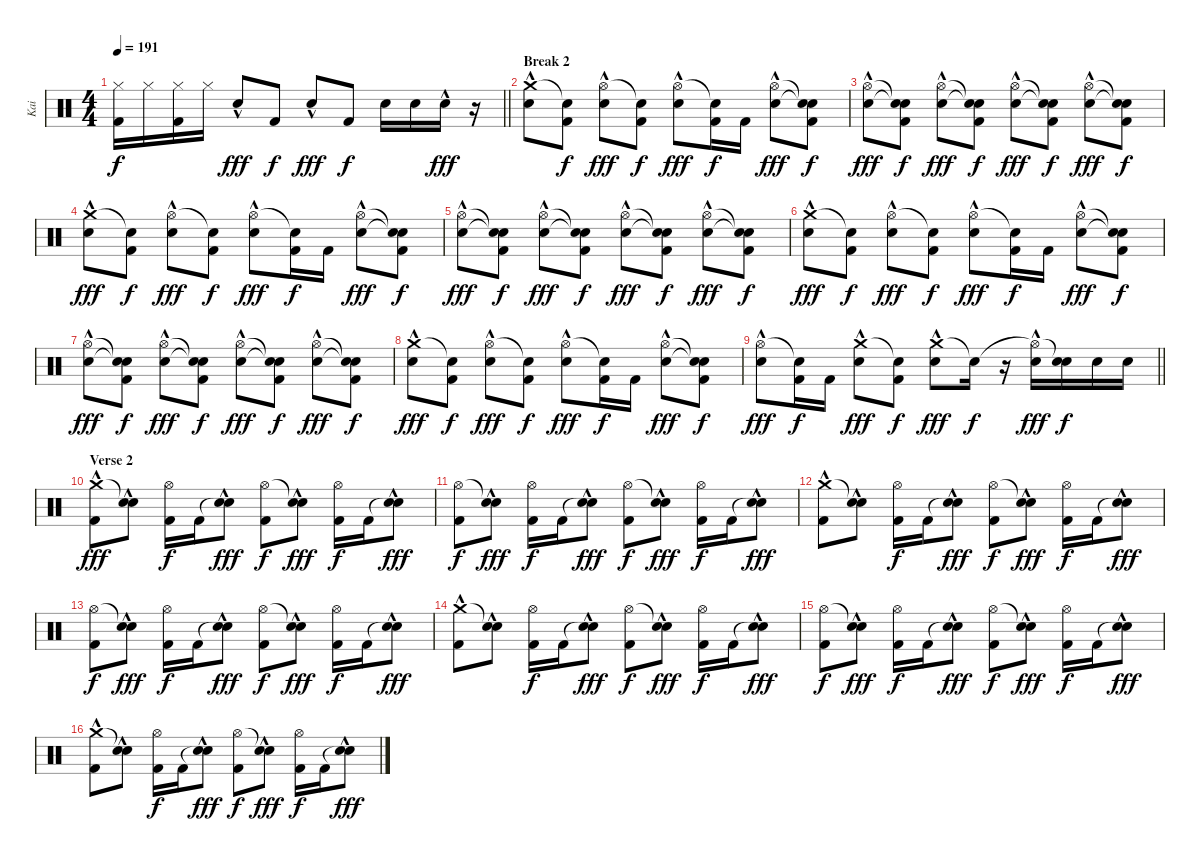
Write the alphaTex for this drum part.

\track ("Kai" "Kai") {instrument percussion}
\staff {score}
\articulation defaults
\ts (4 4)
\tempo 191
\clef neutral
\barLineRight lightlight
\ks c
("Hi-Hat (closed)" "Kick (hit) 2").16{dy f} "Hi-Hat (closed)".16 ("Hi-Hat (closed)" "Kick (hit) 2").16 "Hi-Hat (closed)".16 "Snare (hit) 2"{hac}.8{dy fff} "Kick (hit) 2".8{dy f} "Snare (hit) 2"{hac}.8{dy fff} "Kick (hit) 2".8{dy f} "Snare (hit) 2".16 "Snare (hit) 2".16 "Snare (hit) 2"{hac}.16{dy fff} r.16 |
\section ("" "Break 2")
("Crash medium (hit)"{hac} "Snare (hit) 2"{hac}).8 ("Snare (hit)"{t} "Kick (hit) 2").8{dy f} ("Hi-Hat (open)" "Snare (hit) 2"{hac}).8{dy fff} ("Snare (hit)"{t} "Kick (hit) 2").8{dy f} ("Hi-Hat (open)" "Snare (hit) 2"{hac}).8{dy fff} ("Snare (hit)"{t} "Kick (hit) 2").16{dy f} "Kick (hit) 2".16 ("Hi-Hat (open)" "Snare (hit) 2"{hac}).8{dy fff} ("Snare (hit)"{t} "Snare (hit)"{t} "Kick (hit) 2").8{dy f} |
("Hi-Hat (open)" "Snare (hit) 2"{hac}).8{dy fff} ("Snare (hit)"{t} "Snare (hit)"{t} "Kick (hit) 2").8{dy f} ("Hi-Hat (open)" "Snare (hit) 2"{hac}).8{dy fff} ("Snare (hit)"{t} "Snare (hit)"{t} "Kick (hit) 2").8{dy f} ("Hi-Hat (open)" "Snare (hit) 2"{hac}).8{dy fff} ("Snare (hit)"{t} "Snare (hit)"{t} "Kick (hit) 2").8{dy f} ("Hi-Hat (open)" "Snare (hit) 2"{hac}).8{dy fff} ("Snare (hit)"{t} "Snare (hit)"{t} "Kick (hit) 2").8{dy f} |
("Crash medium (hit)"{hac} "Snare (hit) 2"{hac}).8{dy fff} ("Snare (hit)"{t} "Kick (hit) 2").8{dy f} ("Hi-Hat (open)" "Snare (hit) 2"{hac}).8{dy fff} ("Snare (hit)"{t} "Kick (hit) 2").8{dy f} ("Hi-Hat (open)" "Snare (hit) 2"{hac}).8{dy fff} ("Snare (hit)"{t} "Kick (hit) 2").16{dy f} "Kick (hit) 2".16 ("Hi-Hat (open)" "Snare (hit) 2"{hac}).8{dy fff} ("Snare (hit)"{t} "Snare (hit)"{t} "Kick (hit) 2").8{dy f} |
("Hi-Hat (open)" "Snare (hit) 2"{hac}).8{dy fff} ("Snare (hit)"{t} "Snare (hit)"{t} "Kick (hit) 2").8{dy f} ("Hi-Hat (open)" "Snare (hit) 2"{hac}).8{dy fff} ("Snare (hit)"{t} "Snare (hit)"{t} "Kick (hit) 2").8{dy f} ("Hi-Hat (open)" "Snare (hit) 2"{hac}).8{dy fff} ("Snare (hit)"{t} "Snare (hit)"{t} "Kick (hit) 2").8{dy f} ("Hi-Hat (open)" "Snare (hit) 2"{hac}).8{dy fff} ("Snare (hit)"{t} "Snare (hit)"{t} "Kick (hit) 2").8{dy f} |
("Crash medium (hit)"{hac} "Snare (hit) 2"{hac}).8{dy fff} ("Snare (hit)"{t} "Kick (hit) 2").8{dy f} ("Hi-Hat (open)" "Snare (hit) 2"{hac}).8{dy fff} ("Snare (hit)"{t} "Kick (hit) 2").8{dy f} ("Hi-Hat (open)" "Snare (hit) 2"{hac}).8{dy fff} ("Snare (hit)"{t} "Kick (hit) 2").16{dy f} "Kick (hit) 2".16 ("Hi-Hat (open)" "Snare (hit) 2"{hac}).8{dy fff} ("Snare (hit)"{t} "Snare (hit)"{t} "Kick (hit) 2").8{dy f} |
("Hi-Hat (open)" "Snare (hit) 2"{hac}).8{dy fff} ("Snare (hit)"{t} "Snare (hit)"{t} "Kick (hit) 2").8{dy f} ("Hi-Hat (open)" "Snare (hit) 2"{hac}).8{dy fff} ("Snare (hit)"{t} "Snare (hit)"{t} "Kick (hit) 2").8{dy f} ("Hi-Hat (open)" "Snare (hit) 2"{hac}).8{dy fff} ("Snare (hit)"{t} "Snare (hit)"{t} "Kick (hit) 2").8{dy f} ("Hi-Hat (open)" "Snare (hit) 2"{hac}).8{dy fff} ("Snare (hit)"{t} "Snare (hit)"{t} "Kick (hit) 2").8{dy f} |
("Crash medium (hit)"{hac} "Snare (hit) 2"{hac}).8{dy fff} ("Snare (hit)"{t} "Kick (hit) 2").8{dy f} ("Hi-Hat (open)" "Snare (hit) 2"{hac}).8{dy fff} ("Snare (hit)"{t} "Kick (hit) 2").8{dy f} ("Hi-Hat (open)" "Snare (hit) 2"{hac}).8{dy fff} ("Snare (hit)"{t} "Kick (hit) 2").16{dy f} "Kick (hit) 2".16 ("Hi-Hat (open)" "Snare (hit) 2"{hac}).8{dy fff} ("Snare (hit)"{t} "Snare (hit)"{t} "Kick (hit) 2").8{dy f} |
\barLineRight lightlight
("Hi-Hat (open)" "Snare (hit) 2"{hac}).8{dy fff} ("Snare (hit)"{t} "Kick (hit) 2").16{dy f} "Kick (hit) 2".16 ("Crash medium (hit)" "Snare (hit) 2"{hac}).8{dy fff} ("Snare (hit)"{t} "Kick (hit) 2").8{dy f} ("Crash medium (hit)" "Snare (hit) 2"{hac}).8{dy fff} "Snare (hit)"{t}.16{dy f} r.16 ("Hi-Hat (open)"{t} "Snare (hit) 2"{hac}).16{dy fff} ("Snare (hit)"{t} "Snare (hit) 2").16{dy f} "Snare (hit) 2".16 "Snare (hit) 2".16 |
\section ("" "Verse 2")
("Crash medium (hit)"{hac} "Kick (hit) 2").8{dy fff} ("Snare (hit)"{t} "Snare (hit) 2"{hac}).8 ("Hi-Hat (open)" "Kick (hit) 2").16{dy f} "Kick (hit) 2".16 ("Snare (hit)"{t} "Snare (hit) 2"{hac}).8{dy fff} ("Hi-Hat (open)" "Kick (hit) 2").8{dy f} ("Snare (hit)"{t} "Snare (hit) 2"{hac}).8{dy fff} ("Hi-Hat (open)" "Kick (hit) 2").16{dy f} "Kick (hit) 2".16 ("Snare (hit)"{t} "Snare (hit) 2"{hac}).8{dy fff} |
("Hi-Hat (open)" "Kick (hit) 2").8{dy f} ("Snare (hit)"{t} "Snare (hit) 2"{hac}).8{dy fff} ("Hi-Hat (open)" "Kick (hit) 2").16{dy f} "Kick (hit) 2".16 ("Snare (hit)"{t} "Snare (hit) 2"{hac}).8{dy fff} ("Hi-Hat (open)" "Kick (hit) 2").8{dy f} ("Snare (hit)"{t} "Snare (hit) 2"{hac}).8{dy fff} ("Hi-Hat (open)" "Kick (hit) 2").16{dy f} "Kick (hit) 2".16 ("Snare (hit)"{t} "Snare (hit) 2"{hac}).8{dy fff} |
("Crash medium (hit)"{hac} "Kick (hit) 2").8 ("Snare (hit)"{t} "Snare (hit) 2"{hac}).8 ("Hi-Hat (open)" "Kick (hit) 2").16{dy f} "Kick (hit) 2".16 ("Snare (hit)"{t} "Snare (hit) 2"{hac}).8{dy fff} ("Hi-Hat (open)" "Kick (hit) 2").8{dy f} ("Snare (hit)"{t} "Snare (hit) 2"{hac}).8{dy fff} ("Hi-Hat (open)" "Kick (hit) 2").16{dy f} "Kick (hit) 2".16 ("Snare (hit)"{t} "Snare (hit) 2"{hac}).8{dy fff} |
("Hi-Hat (open)" "Kick (hit) 2").8{dy f} ("Snare (hit)"{t} "Snare (hit) 2"{hac}).8{dy fff} ("Hi-Hat (open)" "Kick (hit) 2").16{dy f} "Kick (hit) 2".16 ("Snare (hit)"{t} "Snare (hit) 2"{hac}).8{dy fff} ("Hi-Hat (open)" "Kick (hit) 2").8{dy f} ("Snare (hit)"{t} "Snare (hit) 2"{hac}).8{dy fff} ("Hi-Hat (open)" "Kick (hit) 2").16{dy f} "Kick (hit) 2".16 ("Snare (hit)"{t} "Snare (hit) 2"{hac}).8{dy fff} |
("Crash medium (hit)"{hac} "Kick (hit) 2").8 ("Snare (hit)"{t} "Snare (hit) 2"{hac}).8 ("Hi-Hat (open)" "Kick (hit) 2").16{dy f} "Kick (hit) 2".16 ("Snare (hit)"{t} "Snare (hit) 2"{hac}).8{dy fff} ("Hi-Hat (open)" "Kick (hit) 2").8{dy f} ("Snare (hit)"{t} "Snare (hit) 2"{hac}).8{dy fff} ("Hi-Hat (open)" "Kick (hit) 2").16{dy f} "Kick (hit) 2".16 ("Snare (hit)"{t} "Snare (hit) 2"{hac}).8{dy fff} |
("Hi-Hat (open)" "Kick (hit) 2").8{dy f} ("Snare (hit)"{t} "Snare (hit) 2"{hac}).8{dy fff} ("Hi-Hat (open)" "Kick (hit) 2").16{dy f} "Kick (hit) 2".16 ("Snare (hit)"{t} "Snare (hit) 2"{hac}).8{dy fff} ("Hi-Hat (open)" "Kick (hit) 2").8{dy f} ("Snare (hit)"{t} "Snare (hit) 2"{hac}).8{dy fff} ("Hi-Hat (open)" "Kick (hit) 2").16{dy f} "Kick (hit) 2".16 ("Snare (hit)"{t} "Snare (hit) 2"{hac}).8{dy fff} |
("Crash medium (hit)"{hac} "Kick (hit) 2").8 ("Snare (hit)"{t} "Snare (hit) 2"{hac}).8 ("Hi-Hat (open)" "Kick (hit) 2").16{dy f} "Kick (hit) 2".16 ("Snare (hit)"{t} "Snare (hit) 2"{hac}).8{dy fff} ("Hi-Hat (open)" "Kick (hit) 2").8{dy f} ("Snare (hit)"{t} "Snare (hit) 2"{hac}).8{dy fff} ("Hi-Hat (open)" "Kick (hit) 2").16{dy f} "Kick (hit) 2".16 ("Snare (hit)"{t} "Snare (hit) 2"{hac}).8{dy fff}
